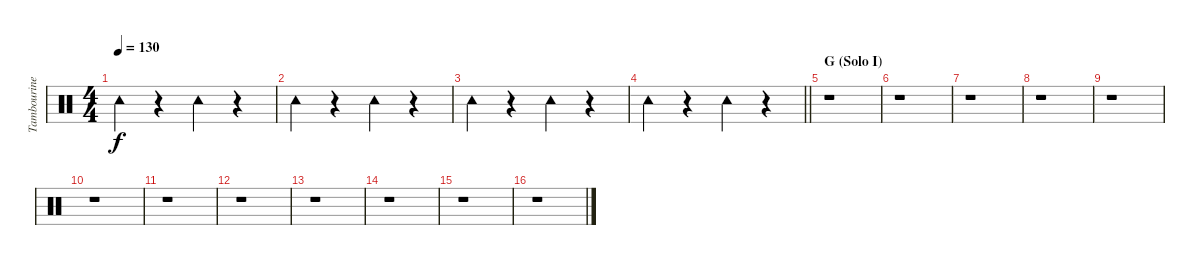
\track ("Tambourine" "Tambourine") {instrument percussion}
\staff {score}
\articulation defaults
\ts (4 4)
\tempo 130
\clef neutral
\ks c "Tambourine (hit)".4{dy f}
r.4 "Tambourine (hit)".4 r.4 |
"Tambourine (hit)".4 r.4 "Tambourine (hit)".4 r.4 |
"Tambourine (hit)".4 r.4 "Tambourine (hit)".4 r.4 |
\barLineRight lightlight "Tambourine (hit)".4
r.4 "Tambourine (hit)".4 r.4 |
\section ("" "G (Solo I)")
r.1 |
r.1 |
r.1 |
r.1 |
r.1 |
r.1 |
r.1 |
r.1 |
r.1 |
r.1 |
r.1 |
r.1
